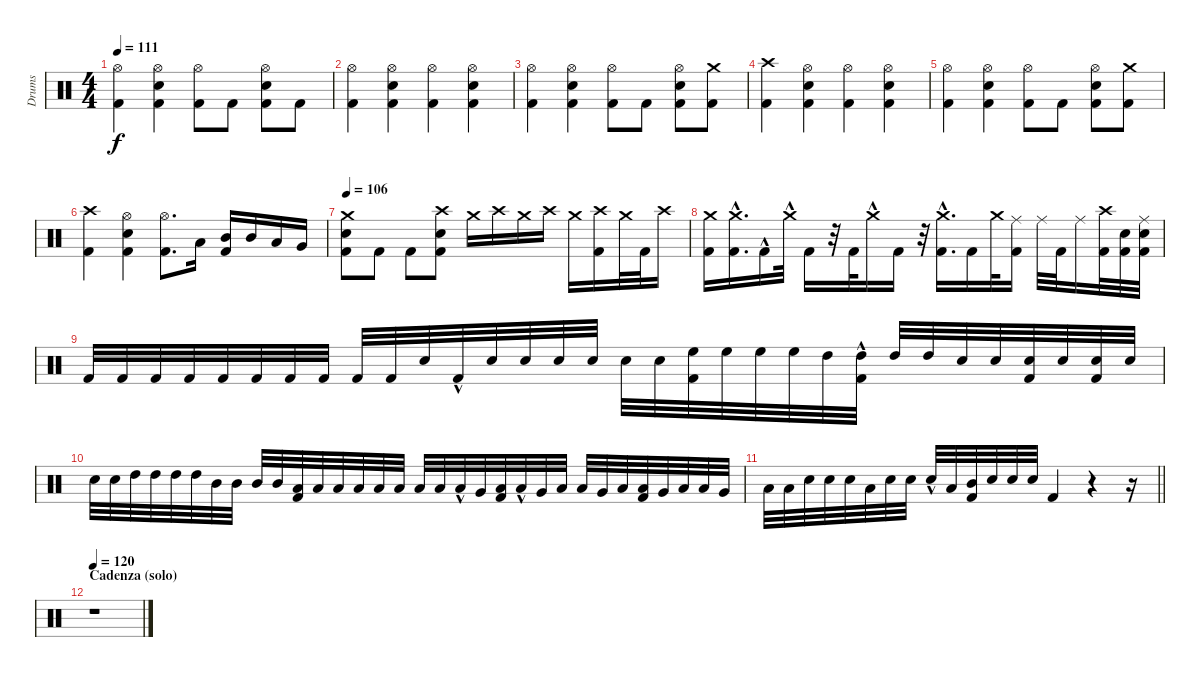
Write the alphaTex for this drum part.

\track ("Drums" "Drums") {instrument percussion}
\staff {score}
\articulation defaults
\ts (4 4)
\tempo 111
\clef neutral
\ks c
("Hi-Hat (open)" "Kick (hit) 2").4{dy f} ("Snare (hit) 2" "Hi-Hat (open)" "Kick (hit) 2").4 ("Hi-Hat (open)" "Kick (hit) 2").8 "Kick (hit) 2".8 ("Snare (hit) 2" "Hi-Hat (open)" "Kick (hit) 2").8 "Kick (hit) 2".8 |
("Kick (hit) 2" "Hi-Hat (open)").4 ("Hi-Hat (open)" "Kick (hit) 2" "Snare (hit) 2").4 ("Hi-Hat (open)" "Kick (hit) 2").4 ("Hi-Hat (open)" "Kick (hit) 2" "Snare (hit) 2").4 |
("Hi-Hat (open)" "Kick (hit) 2").4 ("Hi-Hat (open)" "Kick (hit) 2" "Snare (hit) 2").4 ("Hi-Hat (open)" "Kick (hit) 2").8 "Kick (hit) 2".8 ("Kick (hit) 2" "Hi-Hat (open)" "Snare (hit) 2").8 ("Kick (hit) 2" "Crash medium (hit)").8 |
("Kick (hit) 2" "Crash high (hit)").4 ("Hi-Hat (open)" "Kick (hit) 2" "Snare (hit) 2").4 ("Hi-Hat (open)" "Kick (hit) 2").4 ("Snare (hit) 2" "Kick (hit) 2" "Hi-Hat (open)").4 |
("Kick (hit) 2" "Hi-Hat (open)").4 ("Snare (hit) 2" "Kick (hit) 2" "Hi-Hat (open)").4 ("Kick (hit) 2" "Hi-Hat (open)").8 "Kick (hit) 2".8 ("Kick (hit) 2" "Hi-Hat (open)" "Snare (hit) 2").8 ("Crash medium (hit)" "Kick (hit) 2").8 |
("Kick (hit) 2" "Crash high (hit)").4 ("Snare (hit) 2" "Hi-Hat (open)" "Kick (hit) 2").4 ("Hi-Hat (open)" "Kick (hit) 2").8{d} "Low Tom (hit)".16 ("Kick (hit) 2" "Mid Tom (hit)").16 "Mid Tom (hit)".16 "Low Tom (hit)".16 "Very Low Tom (hit)".16 |
\tempo 106
("Snare (hit) 2" "Crash medium (hit)" "Kick (hit) 2").8 "Kick (hit) 2".8 "Kick (hit) 2".8 ("Snare (hit) 2" "Kick (hit) 2" "Crash high (hit)").8 "Crash medium (hit)".16 "Crash high (hit)".16 "Crash medium (hit)".16 "Crash high (hit)".16 "Crash medium (hit)".16 ("Crash high (hit)" "Kick (hit) 2").16 "Crash medium (hit)".32 "Kick (hit) 2".32 "Crash high (hit)".16 |
("Crash medium (hit)" "Kick (hit) 2").16 ("Kick (hit) 2"{hac} "Crash medium (hit)").16{d} "Kick (hit) 2"{hac}.16 "Crash medium (hit)"{hac}.32 "Kick (hit) 2".16 r.32 "Kick (hit) 2".32 "Crash medium (hit)"{hac}.16 "Kick (hit) 2".16 r.32 ("Kick (hit) 2" "Crash medium (hit)"{hac}).16{d} "Kick (hit) 2".16 "Crash medium (hit)".32 ("Ride (middle)" "Kick (hit) 2").16 "Ride (middle)".32 "Kick (hit) 2".32 "Ride (middle)".16 ("Kick (hit) 2" "Crash high (hit)").32 ("Snare (hit) 2" "Kick (hit) 2").32 ("Ride (middle)" "Kick (hit) 2" "Snare (hit) 2").32 |
"Kick (hit) 2".32 "Kick (hit) 2".32 "Kick (hit) 2".32 "Kick (hit) 2".32 "Kick (hit) 2".32 "Kick (hit) 2".32 "Kick (hit) 2".32 "Kick (hit) 2".32 "Kick (hit) 2".32 "Kick (hit) 2".32 "Snare (hit) 2".32 "Kick (hit) 2"{hac}.32 "Snare (hit) 2".32 "Snare (hit) 2".32 "Snare (hit) 2".32 "Snare (hit) 2".32 "Snare (hit) 2".32 "Snare (hit) 2".32 ("High Floor Tom (hit)" "Kick (hit) 2").32 "High Floor Tom (hit)".32 "High Floor Tom (hit)".32 "High Floor Tom (hit)".32 "High Tom (hit)".32 ("High Tom (hit)" "Kick (hit) 2"{hac}).32 "High Tom (hit)".32 "High Tom (hit)".32 "Snare (hit) 2".32 "Snare (hit) 2".32 ("Snare (hit) 2" "Kick (hit) 2").32 "Snare (hit) 2".32 ("Snare (hit) 2" "Kick (hit) 2").32 "Snare (hit) 2".32 |
"Snare (hit) 2".32 "Snare (hit) 2".32 "High Tom (hit)".32 "High Tom (hit)".32 "High Tom (hit)".32 "High Tom (hit)".32 "Mid Tom (hit)".32 "Mid Tom (hit)".32 "Mid Tom (hit)".32 "Mid Tom (hit)".32 ("Low Tom (hit)" "Kick (hit) 2").32 "Low Tom (hit)".32 "Low Tom (hit)".32 "Low Tom (hit)".32 "Low Tom (hit)".32 "Low Tom (hit)".32 "Low Tom (hit)".32 "Low Tom (hit)".32 "Low Tom (hit)"{hac}.32 "Very Low Tom (hit)".32 ("Low Floor Tom (hit)" "Kick (hit) 2").32 "Low Tom (hit)"{hac}.32 "Very Low Tom (hit)".32 "Low Floor Tom (hit)".32 "Low Tom (hit)".32 "Very Low Tom (hit)".32 "Low Floor Tom (hit)".32 ("Low Tom (hit)" "Kick (hit) 2").32 "Very Low Tom (hit)".32 "Low Floor Tom (hit)".32 "Low Tom (hit)".32 "Very Low Tom (hit)".32 |
\barLineRight lightlight "Low Floor Tom (hit)".32 "Low Tom (hit)".32 "Snare (hit) 2".32 "Snare (hit) 2".32 "Snare (hit) 2".32 "Low Tom (hit)".32 "Snare (hit) 2".32 "Snare (hit) 2".32 "Snare (hit) 2"{hac}.32 "Low Tom (hit)".32
("Kick (hit) 2" "Mid Tom (hit)").32 "Snare (hit) 2".32 "Snare (hit) 2".32 "Snare (hit) 2".32 "Kick (hit) 2".4 r.4 r.16 |
\section ("" "Cadenza (solo)")
\tempo 120
r.1
